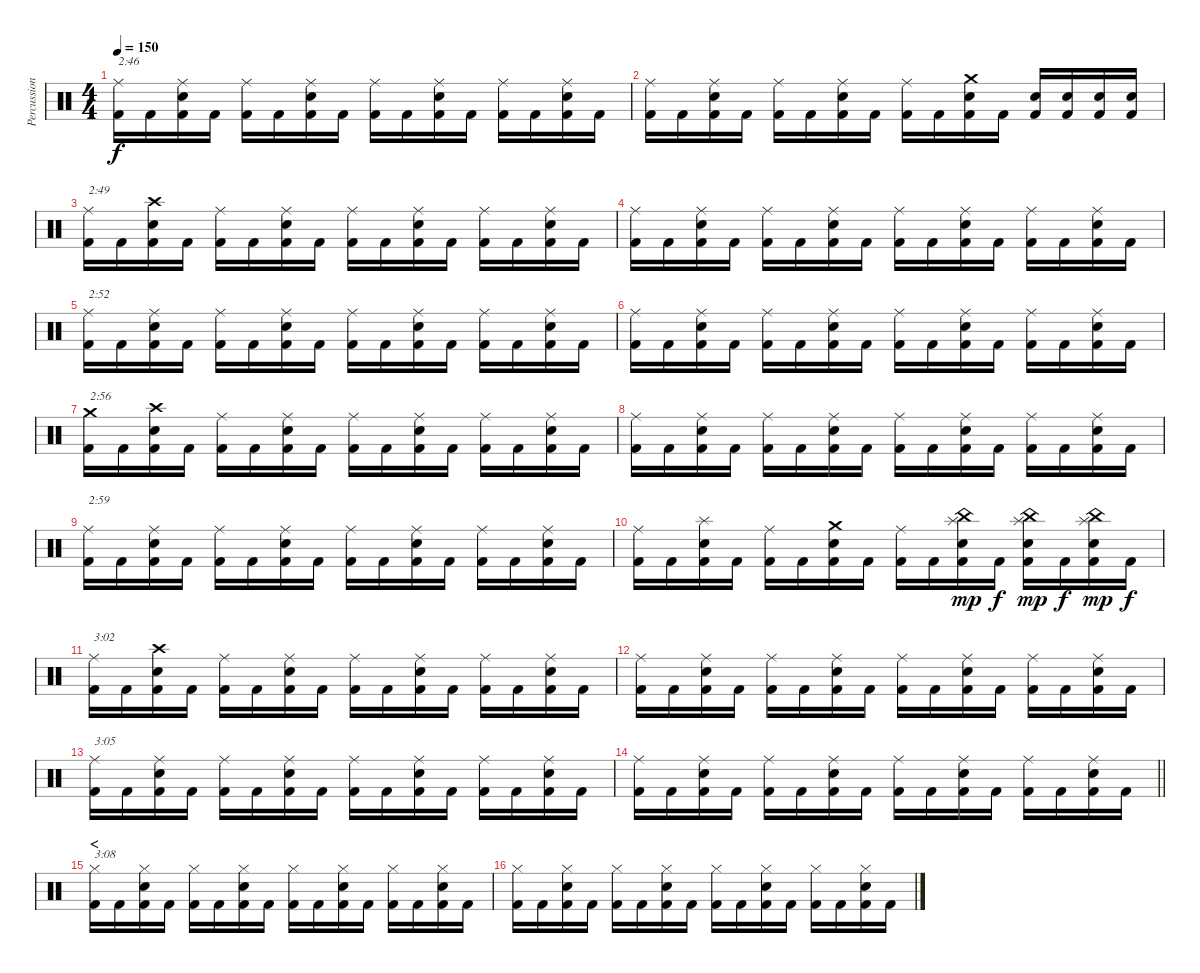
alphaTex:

\track ("Percussion" "Percussion") {instrument percussion}
\staff {score}
\articulation defaults
\ts (4 4)
\tempo 150
\clef neutral
\ks c
("Ride (middle)" "Kick (hit) 2").16{txt "2:46" dy f} "Kick (hit) 2".16 ("Ride (middle)" "Electric Snare (hit)" "Kick (hit) 2").16 "Kick (hit) 2".16 ("Ride (middle)" "Kick (hit) 2").16 "Kick (hit) 2".16 ("Ride (middle)" "Electric Snare (hit)" "Kick (hit) 2").16 "Kick (hit) 2".16 ("Ride (middle)" "Kick (hit) 2").16 "Kick (hit) 2".16 ("Ride (middle)" "Electric Snare (hit)" "Kick (hit) 2").16 "Kick (hit) 2".16 ("Ride (middle)" "Kick (hit) 2").16 "Kick (hit) 2".16 ("Ride (middle)" "Electric Snare (hit)" "Kick (hit) 2").16 "Kick (hit) 2".16 |
("Ride (middle)" "Kick (hit) 2").16 "Kick (hit) 2".16 ("Ride (middle)" "Electric Snare (hit)" "Kick (hit) 2").16 "Kick (hit) 2".16 ("Ride (middle)" "Kick (hit) 2").16 "Kick (hit) 2".16 ("Ride (middle)" "Electric Snare (hit)" "Kick (hit) 2").16 "Kick (hit) 2".16 ("Ride (middle)" "Kick (hit) 2").16 "Kick (hit) 2".16 ("Crash medium (hit)" "Electric Snare (hit)" "Kick (hit) 2").16 "Kick (hit) 2".16 ("Electric Snare (hit)" "Kick (hit) 2").16 ("Electric Snare (hit)" "Kick (hit) 2").16 ("Electric Snare (hit)" "Kick (hit) 2").16 ("Electric Snare (hit)" "Kick (hit) 2").16 |
("Ride (middle)" "Kick (hit) 2").16{txt "2:49"} "Kick (hit) 2".16 ("Crash high (hit)" "Electric Snare (hit)" "Kick (hit) 2").16 "Kick (hit) 2".16 ("Ride (middle)" "Kick (hit) 2").16 "Kick (hit) 2".16 ("Ride (middle)" "Electric Snare (hit)" "Kick (hit) 2").16 "Kick (hit) 2".16 ("Ride (middle)" "Kick (hit) 2").16 "Kick (hit) 2".16 ("Ride (middle)" "Electric Snare (hit)" "Kick (hit) 2").16 "Kick (hit) 2".16 ("Ride (middle)" "Kick (hit) 2").16 "Kick (hit) 2".16 ("Ride (middle)" "Electric Snare (hit)" "Kick (hit) 2").16 "Kick (hit) 2".16 |
("Ride (middle)" "Kick (hit) 2").16 "Kick (hit) 2".16 ("Ride (middle)" "Electric Snare (hit)" "Kick (hit) 2").16 "Kick (hit) 2".16 ("Ride (middle)" "Kick (hit) 2").16 "Kick (hit) 2".16 ("Ride (middle)" "Electric Snare (hit)" "Kick (hit) 2").16 "Kick (hit) 2".16 ("Ride (middle)" "Kick (hit) 2").16 "Kick (hit) 2".16 ("Ride (middle)" "Electric Snare (hit)" "Kick (hit) 2").16 "Kick (hit) 2".16 ("Ride (middle)" "Kick (hit) 2").16 "Kick (hit) 2".16 ("Ride (middle)" "Electric Snare (hit)" "Kick (hit) 2").16 "Kick (hit) 2".16 |
("Ride (middle)" "Kick (hit) 2").16{txt "2:52"} "Kick (hit) 2".16 ("Ride (middle)" "Electric Snare (hit)" "Kick (hit) 2").16 "Kick (hit) 2".16 ("Ride (middle)" "Kick (hit) 2").16 "Kick (hit) 2".16 ("Ride (middle)" "Electric Snare (hit)" "Kick (hit) 2").16 "Kick (hit) 2".16 ("Ride (middle)" "Kick (hit) 2").16 "Kick (hit) 2".16 ("Ride (middle)" "Electric Snare (hit)" "Kick (hit) 2").16 "Kick (hit) 2".16 ("Ride (middle)" "Kick (hit) 2").16 "Kick (hit) 2".16 ("Ride (middle)" "Electric Snare (hit)" "Kick (hit) 2").16 "Kick (hit) 2".16 |
("Ride (middle)" "Kick (hit) 2").16 "Kick (hit) 2".16 ("Ride (middle)" "Electric Snare (hit)" "Kick (hit) 2").16 "Kick (hit) 2".16 ("Ride (middle)" "Kick (hit) 2").16 "Kick (hit) 2".16 ("Ride (middle)" "Electric Snare (hit)" "Kick (hit) 2").16 "Kick (hit) 2".16 ("Ride (middle)" "Kick (hit) 2").16 "Kick (hit) 2".16 ("Ride (middle)" "Electric Snare (hit)" "Kick (hit) 2").16 "Kick (hit) 2".16 ("Ride (middle)" "Kick (hit) 2").16 "Kick (hit) 2".16 ("Ride (middle)" "Electric Snare (hit)" "Kick (hit) 2").16 "Kick (hit) 2".16 |
("Crash medium (hit)" "Kick (hit) 2").16{txt "2:56"} "Kick (hit) 2".16 ("Crash high (hit)" "Electric Snare (hit)" "Kick (hit) 2").16 "Kick (hit) 2".16 ("Ride (middle)" "Kick (hit) 2").16 "Kick (hit) 2".16 ("Ride (middle)" "Electric Snare (hit)" "Kick (hit) 2").16 "Kick (hit) 2".16 ("Ride (middle)" "Kick (hit) 2").16 "Kick (hit) 2".16 ("Ride (middle)" "Electric Snare (hit)" "Kick (hit) 2").16 "Kick (hit) 2".16 ("Ride (middle)" "Kick (hit) 2").16 "Kick (hit) 2".16 ("Ride (middle)" "Electric Snare (hit)" "Kick (hit) 2").16 "Kick (hit) 2".16 |
("Ride (middle)" "Kick (hit) 2").16 "Kick (hit) 2".16 ("Ride (middle)" "Electric Snare (hit)" "Kick (hit) 2").16 "Kick (hit) 2".16 ("Ride (middle)" "Kick (hit) 2").16 "Kick (hit) 2".16 ("Ride (middle)" "Electric Snare (hit)" "Kick (hit) 2").16 "Kick (hit) 2".16 ("Ride (middle)" "Kick (hit) 2").16 "Kick (hit) 2".16 ("Ride (middle)" "Electric Snare (hit)" "Kick (hit) 2").16 "Kick (hit) 2".16 ("Ride (middle)" "Kick (hit) 2").16 "Kick (hit) 2".16 ("Ride (middle)" "Electric Snare (hit)" "Kick (hit) 2").16 "Kick (hit) 2".16 |
("Ride (middle)" "Kick (hit) 2").16{txt "2:59"} "Kick (hit) 2".16 ("Ride (middle)" "Electric Snare (hit)" "Kick (hit) 2").16 "Kick (hit) 2".16 ("Ride (middle)" "Kick (hit) 2").16 "Kick (hit) 2".16 ("Ride (middle)" "Electric Snare (hit)" "Kick (hit) 2").16 "Kick (hit) 2".16 ("Ride (middle)" "Kick (hit) 2").16 "Kick (hit) 2".16 ("Ride (middle)" "Electric Snare (hit)" "Kick (hit) 2").16 "Kick (hit) 2".16 ("Ride (middle)" "Kick (hit) 2").16 "Kick (hit) 2".16 ("Ride (middle)" "Electric Snare (hit)" "Kick (hit) 2").16 "Kick (hit) 2".16 |
("Ride (middle)" "Kick (hit) 2").16 "Kick (hit) 2".16 ("Splash (hit)" "Electric Snare (hit)" "Kick (hit) 2").16 "Kick (hit) 2".16 ("Ride (middle)" "Kick (hit) 2").16 "Kick (hit) 2".16 ("Crash medium (hit)" "Electric Snare (hit)" "Kick (hit) 2").16 "Kick (hit) 2".16 ("Ride (middle)" "Kick (hit) 2").16 "Kick (hit) 2".16 ("Splash (hit)" "China (hit)" "Electric Snare (hit)" "Kick (hit) 2").16{dy mp} "Kick (hit) 2".16{dy f} ("Splash (hit)" "China (hit)" "Electric Snare (hit)" "Kick (hit) 2").16{dy mp} "Kick (hit) 2".16{dy f} ("Splash (hit)" "China (hit)" "Electric Snare (hit)" "Kick (hit) 2").16{dy mp} "Kick (hit) 2".16{dy f} |
("Ride (middle)" "Kick (hit) 2").16{txt "3:02"} "Kick (hit) 2".16 ("Crash high (hit)" "Electric Snare (hit)" "Kick (hit) 2").16 "Kick (hit) 2".16 ("Ride (middle)" "Kick (hit) 2").16 "Kick (hit) 2".16 ("Ride (middle)" "Electric Snare (hit)" "Kick (hit) 2").16 "Kick (hit) 2".16 ("Ride (middle)" "Kick (hit) 2").16 "Kick (hit) 2".16 ("Ride (middle)" "Electric Snare (hit)" "Kick (hit) 2").16 "Kick (hit) 2".16 ("Ride (middle)" "Kick (hit) 2").16 "Kick (hit) 2".16 ("Ride (middle)" "Electric Snare (hit)" "Kick (hit) 2").16 "Kick (hit) 2".16 |
("Ride (middle)" "Kick (hit) 2").16 "Kick (hit) 2".16 ("Ride (middle)" "Electric Snare (hit)" "Kick (hit) 2").16 "Kick (hit) 2".16 ("Ride (middle)" "Kick (hit) 2").16 "Kick (hit) 2".16 ("Ride (middle)" "Electric Snare (hit)" "Kick (hit) 2").16 "Kick (hit) 2".16 ("Ride (middle)" "Kick (hit) 2").16 "Kick (hit) 2".16 ("Ride (middle)" "Electric Snare (hit)" "Kick (hit) 2").16 "Kick (hit) 2".16 ("Ride (middle)" "Kick (hit) 2").16 "Kick (hit) 2".16 ("Ride (middle)" "Electric Snare (hit)" "Kick (hit) 2").16 "Kick (hit) 2".16 |
("Ride (middle)" "Kick (hit) 2").16{txt "3:05"} "Kick (hit) 2".16 ("Ride (middle)" "Electric Snare (hit)" "Kick (hit) 2").16 "Kick (hit) 2".16 ("Ride (middle)" "Kick (hit) 2").16 "Kick (hit) 2".16 ("Ride (middle)" "Electric Snare (hit)" "Kick (hit) 2").16 "Kick (hit) 2".16 ("Ride (middle)" "Kick (hit) 2").16 "Kick (hit) 2".16 ("Ride (middle)" "Electric Snare (hit)" "Kick (hit) 2").16 "Kick (hit) 2".16 ("Ride (middle)" "Kick (hit) 2").16 "Kick (hit) 2".16 ("Ride (middle)" "Electric Snare (hit)" "Kick (hit) 2").16 "Kick (hit) 2".16 |
\barLineRight lightlight
("Ride (middle)" "Kick (hit) 2").16 "Kick (hit) 2".16 ("Ride (middle)" "Electric Snare (hit)" "Kick (hit) 2").16 "Kick (hit) 2".16 ("Ride (middle)" "Kick (hit) 2").16 "Kick (hit) 2".16 ("Ride (middle)" "Electric Snare (hit)" "Kick (hit) 2").16 "Kick (hit) 2".16 ("Ride (middle)" "Kick (hit) 2").16 "Kick (hit) 2".16 ("Ride (middle)" "Electric Snare (hit)" "Kick (hit) 2").16 "Kick (hit) 2".16 ("Ride (middle)" "Kick (hit) 2").16 "Kick (hit) 2".16 ("Ride (middle)" "Electric Snare (hit)" "Kick (hit) 2").16 "Kick (hit) 2".16 |
\section ("" "<")
("Hi-Hat (closed)" "Kick (hit) 2").16{txt "3:08"} "Kick (hit) 2".16 ("Hi-Hat (closed)" "Electric Snare (hit)" "Kick (hit) 2").16 "Kick (hit) 2".16 ("Hi-Hat (closed)" "Kick (hit) 2").16 "Kick (hit) 2".16 ("Hi-Hat (closed)" "Electric Snare (hit)" "Kick (hit) 2").16 "Kick (hit) 2".16 ("Hi-Hat (closed)" "Kick (hit) 2").16 "Kick (hit) 2".16 ("Hi-Hat (closed)" "Electric Snare (hit)" "Kick (hit) 2").16 "Kick (hit) 2".16 ("Hi-Hat (closed)" "Kick (hit) 2").16 "Kick (hit) 2".16 ("Hi-Hat (closed)" "Electric Snare (hit)" "Kick (hit) 2").16 "Kick (hit) 2".16 |
("Hi-Hat (closed)" "Kick (hit) 2").16 "Kick (hit) 2".16 ("Hi-Hat (closed)" "Electric Snare (hit)" "Kick (hit) 2").16 "Kick (hit) 2".16 ("Hi-Hat (closed)" "Kick (hit) 2").16 "Kick (hit) 2".16 ("Hi-Hat (closed)" "Electric Snare (hit)" "Kick (hit) 2").16 "Kick (hit) 2".16 ("Hi-Hat (closed)" "Kick (hit) 2").16 "Kick (hit) 2".16 ("Hi-Hat (closed)" "Electric Snare (hit)" "Kick (hit) 2").16 "Kick (hit) 2".16 ("Hi-Hat (closed)" "Kick (hit) 2").16 "Kick (hit) 2".16 ("Hi-Hat (closed)" "Electric Snare (hit)" "Kick (hit) 2").16 "Kick (hit) 2".16
